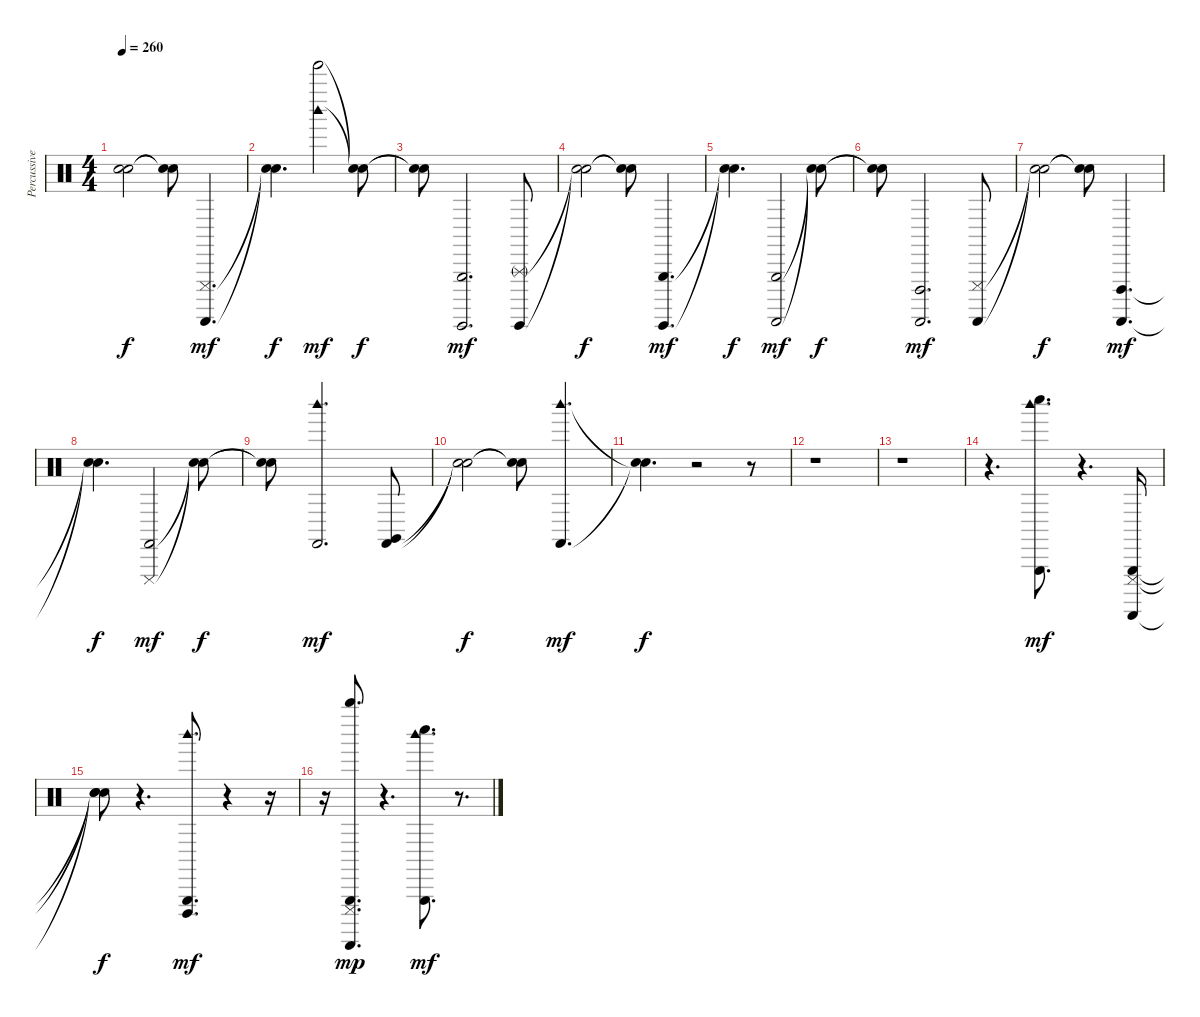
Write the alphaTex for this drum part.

\track ("Percussive Organ" "Percussive") {instrument percussion}
\staff {score}
\articulation defaults
\ts (4 4)
\tempo 260
\clef neutral
\ks c
("Snare (hit)"{t} "Snare (hit)"{t}).2{dy f} ("Snare (hit)"{t} "Snare (hit)"{t}).8 ("Guiro (scrap-return)" "Cuica (mute)").4{d dy mf} |
("Snare (hit)"{t} "Snare (hit)"{t}).4{d dy f} ("Tinkle Bell (hit)" "Woodblock high (hit)").2{dy mf} ("Snare (hit)"{t} "Snare (hit)"{t}).8{dy f} |
("Snare (hit)"{t} "Snare (hit)"{t}).8 ("Triangle (hit)" "Guiro (hit)").2{d dy mf} ("Triangle (rnute)" "Guiro (hit)").8 |
("Snare (hit)"{t} "Snare (hit)"{t}).2{dy f} ("Snare (hit)"{t} "Snare (hit)"{t}).8 ("Triangle (hit)" "Guiro (hit)").4{d dy mf} |
("Snare (hit)"{t} "Snare (hit)"{t}).4{d dy f} ("Triangle (hit)" "Guiro (scrap-return)").2{dy mf} ("Snare (hit)"{t} "Snare (hit)"{t}).8{dy f} |
("Snare (hit)"{t} "Snare (hit)"{t}).8 ("Cuica (open)" "Guiro (scrap-return)").2{d dy mf} ("Cuica (mute)" "Guiro (scrap-return)").8 |
("Snare (hit)"{t} "Snare (hit)"{t}).2{dy f} ("Snare (hit)"{t} "Snare (hit)"{t}).8 ("Cuica (open)" "Guiro (scrap-return)").4{d dy mf} |
("Snare (hit)"{t} "Snare (hit)"{t}).4{d dy f} ("Cuica (mute)" "Castanets (hit)").2{dy mf} ("Snare (hit)"{t} "Snare (hit)"{t}).8{dy f} |
("Snare (hit)"{t} "Snare (hit)"{t}).8 ("Woodblock high (hit)" "Castanets (hit)").2{d dy mf} ("Claves (hit)" "Castanets (hit)").8 |
("Snare (hit)"{t} "Snare (hit)"{t}).2{dy f} ("Snare (hit)"{t} "Snare (hit)"{t}).8 ("Woodblock high (hit)" "Castanets (hit)").4{d dy mf} |
("Snare (hit)"{t} "Snare (hit)"{t}).4{d dy f} r.2 r.8 |
r.1 |
r.1 |
r.4{d} ("Whistle low (hit)" "Triangle (hit)" "Woodblock high (hit)").8{d dy mf} r.4{d} ("Guiro (scrap-return)" "Triangle (hit)" "Cuica (mute)").16 |
("Snare (hit)"{t} "Snare (hit)"{t} "Snare (hit)"{t}).8{dy f} r.4{d} ("Woodblock high (hit)" "Triangle (hit)" "Cuica (open)").8{d dy mf} r.4 r.16 |
r.16 ("Whistle high (hit)" "Triangle (hit)" "Cuica (mute)" "Guiro (scrap-return)").8{d dy mp} r.4{d} ("Whistle low (hit)" "Triangle (hit)" "Woodblock high (hit)").8{d dy mf} r.8{d}
